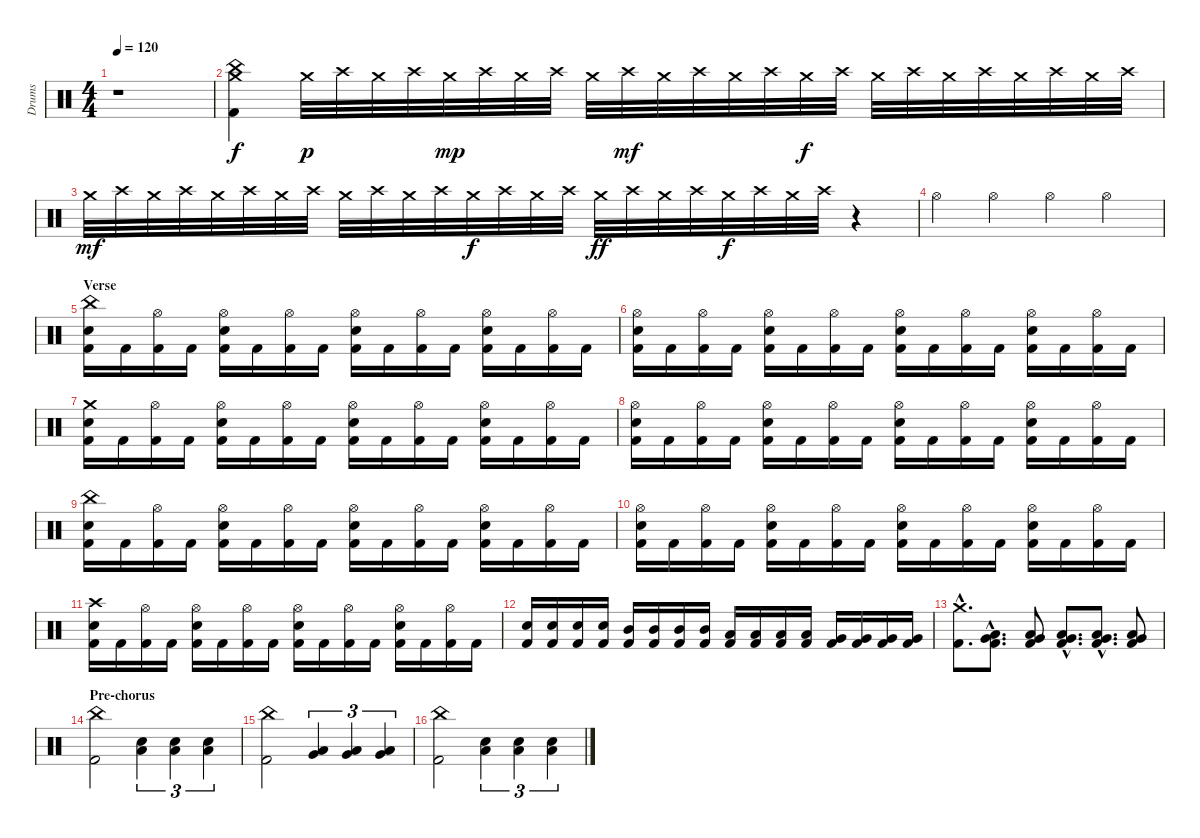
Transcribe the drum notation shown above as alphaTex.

\track ("Drums" "Drums") {instrument percussion}
\staff {score}
\articulation defaults
\ts (4 4)
\tempo 120
\clef neutral
\ks c
r.1{dy f} |
("Crash medium (hit)" "China (hit)" "Kick (hit) 2").4 "Crash medium (hit)".32{dy p} "Crash high (hit)".32 "Crash medium (hit)".32 "Crash high (hit)".32 "Crash medium (hit)".32{dy mp} "Crash high (hit)".32 "Crash medium (hit)".32 "Crash high (hit)".32 "Crash medium (hit)".32 "Crash high (hit)".32{dy mf} "Crash medium (hit)".32 "Crash high (hit)".32 "Crash medium (hit)".32 "Crash high (hit)".32 "Crash medium (hit)".32{dy f} "Crash high (hit)".32 "Crash medium (hit)".32 "Crash high (hit)".32 "Crash medium (hit)".32 "Crash high (hit)".32 "Crash medium (hit)".32 "Crash high (hit)".32 "Crash medium (hit)".32 "Crash high (hit)".32 |
"Crash medium (hit)".32{dy mf} "Crash high (hit)".32 "Crash medium (hit)".32 "Crash high (hit)".32 "Crash medium (hit)".32 "Crash high (hit)".32 "Crash medium (hit)".32 "Crash high (hit)".32 "Crash medium (hit)".32 "Crash high (hit)".32 "Crash medium (hit)".32 "Crash high (hit)".32 "Crash medium (hit)".32{dy f} "Crash high (hit)".32 "Crash medium (hit)".32 "Crash high (hit)".32 "Crash medium (hit)".32{dy ff} "Crash high (hit)".32 "Crash medium (hit)".32 "Crash high (hit)".32 "Crash medium (hit)".32{dy f} "Crash high (hit)".32 "Crash medium (hit)".32 "Crash high (hit)".32 r.4 |
"Hi-Hat (open)".4 "Hi-Hat (open)".4 "Hi-Hat (open)".4 "Hi-Hat (open)".4 |
\section ("" "Verse")
("China (hit)" "Snare (hit) 2" "Kick (hit) 2").16 "Kick (hit) 2".16 ("Hi-Hat (open)" "Kick (hit) 2").16 "Kick (hit) 2".16 ("Hi-Hat (open)" "Snare (hit) 2" "Kick (hit) 2").16 "Kick (hit) 2".16 ("Hi-Hat (open)" "Kick (hit) 2").16 "Kick (hit) 2".16 ("Hi-Hat (open)" "Snare (hit) 2" "Kick (hit) 2").16 "Kick (hit) 2".16 ("Hi-Hat (open)" "Kick (hit) 2").16 "Kick (hit) 2".16 ("Hi-Hat (open)" "Snare (hit) 2" "Kick (hit) 2").16 "Kick (hit) 2".16 ("Hi-Hat (open)" "Kick (hit) 2").16 "Kick (hit) 2".16 |
("Hi-Hat (open)" "Snare (hit) 2" "Kick (hit) 2").16 "Kick (hit) 2".16 ("Hi-Hat (open)" "Kick (hit) 2").16 "Kick (hit) 2".16 ("Hi-Hat (open)" "Snare (hit) 2" "Kick (hit) 2").16 "Kick (hit) 2".16 ("Hi-Hat (open)" "Kick (hit) 2").16 "Kick (hit) 2".16 ("Hi-Hat (open)" "Snare (hit) 2" "Kick (hit) 2").16 "Kick (hit) 2".16 ("Hi-Hat (open)" "Kick (hit) 2").16 "Kick (hit) 2".16 ("Hi-Hat (open)" "Snare (hit) 2" "Kick (hit) 2").16 "Kick (hit) 2".16 ("Hi-Hat (open)" "Kick (hit) 2").16 "Kick (hit) 2".16 |
("Crash medium (hit)" "Snare (hit) 2" "Kick (hit) 2").16 "Kick (hit) 2".16 ("Hi-Hat (open)" "Kick (hit) 2").16 "Kick (hit) 2".16 ("Hi-Hat (open)" "Snare (hit) 2" "Kick (hit) 2").16 "Kick (hit) 2".16 ("Hi-Hat (open)" "Kick (hit) 2").16 "Kick (hit) 2".16 ("Hi-Hat (open)" "Snare (hit) 2" "Kick (hit) 2").16 "Kick (hit) 2".16 ("Hi-Hat (open)" "Kick (hit) 2").16 "Kick (hit) 2".16 ("Hi-Hat (open)" "Snare (hit) 2" "Kick (hit) 2").16 "Kick (hit) 2".16 ("Hi-Hat (open)" "Kick (hit) 2").16 "Kick (hit) 2".16 |
("Hi-Hat (open)" "Snare (hit) 2" "Kick (hit) 2").16 "Kick (hit) 2".16 ("Hi-Hat (open)" "Kick (hit) 2").16 "Kick (hit) 2".16 ("Hi-Hat (open)" "Snare (hit) 2" "Kick (hit) 2").16 "Kick (hit) 2".16 ("Hi-Hat (open)" "Kick (hit) 2").16 "Kick (hit) 2".16 ("Hi-Hat (open)" "Snare (hit) 2" "Kick (hit) 2").16 "Kick (hit) 2".16 ("Hi-Hat (open)" "Kick (hit) 2").16 "Kick (hit) 2".16 ("Hi-Hat (open)" "Snare (hit) 2" "Kick (hit) 2").16 "Kick (hit) 2".16 ("Hi-Hat (open)" "Kick (hit) 2").16 "Kick (hit) 2".16 |
("China (hit)" "Snare (hit) 2" "Kick (hit) 2").16 "Kick (hit) 2".16 ("Hi-Hat (open)" "Kick (hit) 2").16 "Kick (hit) 2".16 ("Hi-Hat (open)" "Snare (hit) 2" "Kick (hit) 2").16 "Kick (hit) 2".16 ("Hi-Hat (open)" "Kick (hit) 2").16 "Kick (hit) 2".16 ("Hi-Hat (open)" "Snare (hit) 2" "Kick (hit) 2").16 "Kick (hit) 2".16 ("Hi-Hat (open)" "Kick (hit) 2").16 "Kick (hit) 2".16 ("Hi-Hat (open)" "Snare (hit) 2" "Kick (hit) 2").16 "Kick (hit) 2".16 ("Hi-Hat (open)" "Kick (hit) 2").16 "Kick (hit) 2".16 |
("Hi-Hat (open)" "Snare (hit) 2" "Kick (hit) 2").16 "Kick (hit) 2".16 ("Hi-Hat (open)" "Kick (hit) 2").16 "Kick (hit) 2".16 ("Hi-Hat (open)" "Snare (hit) 2" "Kick (hit) 2").16 "Kick (hit) 2".16 ("Hi-Hat (open)" "Kick (hit) 2").16 "Kick (hit) 2".16 ("Hi-Hat (open)" "Snare (hit) 2" "Kick (hit) 2").16 "Kick (hit) 2".16 ("Hi-Hat (open)" "Kick (hit) 2").16 "Kick (hit) 2".16 ("Hi-Hat (open)" "Snare (hit) 2" "Kick (hit) 2").16 "Kick (hit) 2".16 ("Hi-Hat (open)" "Kick (hit) 2").16 "Kick (hit) 2".16 |
("Crash high (hit)" "Snare (hit) 2" "Kick (hit) 2").16 "Kick (hit) 2".16 ("Hi-Hat (open)" "Kick (hit) 2").16 "Kick (hit) 2".16 ("Hi-Hat (open)" "Snare (hit) 2" "Kick (hit) 2").16 "Kick (hit) 2".16 ("Hi-Hat (open)" "Kick (hit) 2").16 "Kick (hit) 2".16 ("Hi-Hat (open)" "Snare (hit) 2" "Kick (hit) 2").16 "Kick (hit) 2".16 ("Hi-Hat (open)" "Kick (hit) 2").16 "Kick (hit) 2".16 ("Hi-Hat (open)" "Snare (hit) 2" "Kick (hit) 2").16 "Kick (hit) 2".16 ("Hi-Hat (open)" "Kick (hit) 2").16 "Kick (hit) 2".16 |
("Snare (hit) 2" "Kick (hit) 2").16 ("Snare (hit) 2" "Kick (hit) 2").16 ("Snare (hit) 2" "Kick (hit) 2").16 ("Snare (hit) 2" "Kick (hit) 2").16 ("Mid Tom (hit)" "Kick (hit) 2").16 ("Mid Tom (hit)" "Kick (hit) 2").16 ("Mid Tom (hit)" "Kick (hit) 2").16 ("Mid Tom (hit)" "Kick (hit) 2").16 ("Low Tom (hit)" "Kick (hit) 2").16 ("Low Tom (hit)" "Kick (hit) 2").16 ("Low Tom (hit)" "Kick (hit) 2").16 ("Low Tom (hit)" "Kick (hit) 2").16 ("Very Low Tom (hit)" "Kick (hit) 2").16 ("Very Low Tom (hit)" "Kick (hit) 2").16 ("Very Low Tom (hit)" "Kick (hit) 2").16 ("Very Low Tom (hit)" "Kick (hit) 2").16 |
("Crash medium (hit)"{hac} "Kick (hit) 2"{hac}).8{d} ("Very Low Tom (hit)"{hac} "Low Floor Tom (hit)"{hac} "Kick (hit) 2"{hac}).8{d} ("Very Low Tom (hit)" "Low Floor Tom (hit)" "Kick (hit) 2").8 ("Very Low Tom (hit)"{hac} "Low Floor Tom (hit)"{hac} "Kick (hit) 2"{hac}).8{d} ("Very Low Tom (hit)"{hac} "Low Floor Tom (hit)"{hac} "Kick (hit) 2"{hac}).8{d} ("Very Low Tom (hit)" "Low Floor Tom (hit)" "Kick (hit) 2").8 |
\section ("" "Pre-chorus")
("China (hit)" "Kick (hit) 2").2 ("Low Floor Tom (hit)" "Snare (hit) 2").4{tu (3 2)} ("Low Floor Tom (hit)" "Snare (hit) 2").4{tu (3 2)} ("Low Floor Tom (hit)" "Snare (hit) 2").4{tu (3 2)} |
("China (hit)" "Kick (hit) 2").2 ("Very Low Tom (hit)" "Low Floor Tom (hit)").4{tu (3 2)} ("Very Low Tom (hit)" "Low Floor Tom (hit)").4{tu (3 2)} ("Very Low Tom (hit)" "Low Floor Tom (hit)").4{tu (3 2)} |
("China (hit)" "Kick (hit) 2").2 ("Low Floor Tom (hit)" "Snare (hit) 2").4{tu (3 2)} ("Low Floor Tom (hit)" "Snare (hit) 2").4{tu (3 2)} ("Low Floor Tom (hit)" "Snare (hit) 2").4{tu (3 2)}
